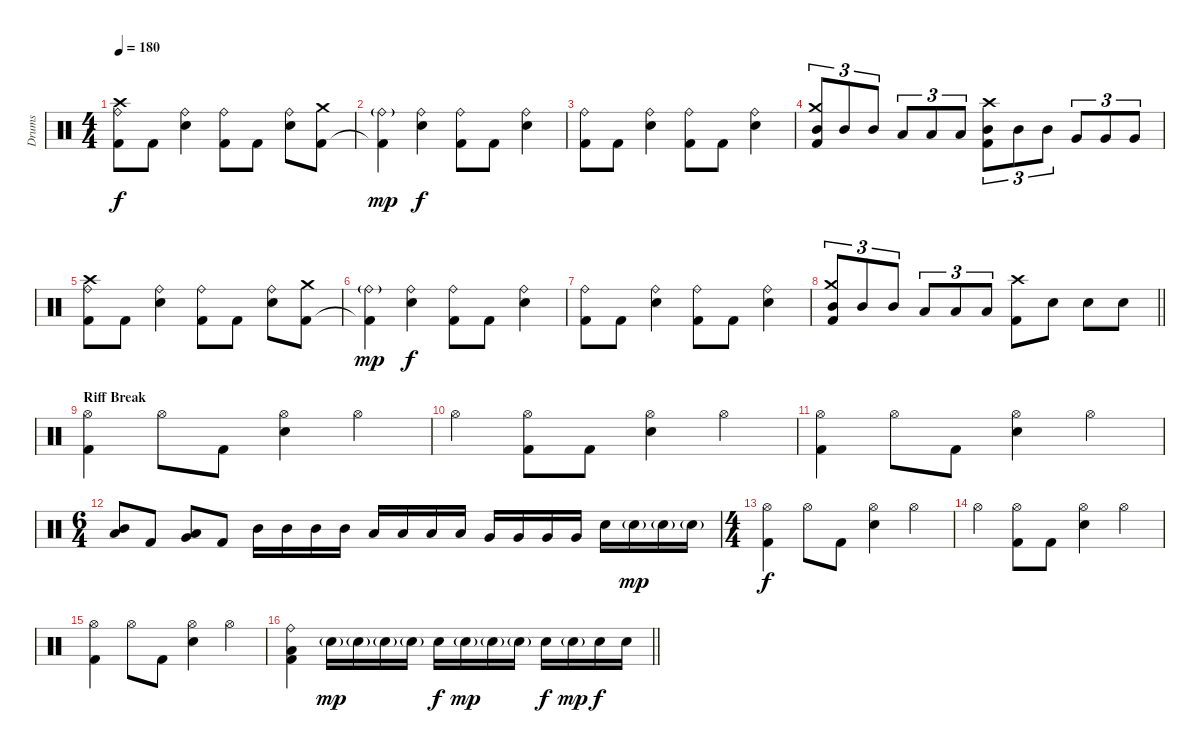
\track ("Drums" "Drums") {instrument percussion}
\staff {score}
\articulation defaults
\ts (4 4)
\tempo 180
\clef neutral
\ks c
("Ride (bell)" "Crash high (hit)" "Kick (hit) 2").8{dy f} "Kick (hit) 2".8 ("Ride (bell)" "Snare (hit) 2").4 ("Ride (bell)" "Kick (hit) 2").8 "Kick (hit) 2".8 ("Ride (bell)" "Snare (hit) 2").8 ("Crash medium (hit)" "Kick (hit) 2").8 |
("Ride (bell)"{g} "Kick (hit) 2"{t}).4{dy mp} ("Ride (bell)" "Snare (hit) 2").4{dy f} ("Ride (bell)" "Kick (hit) 2").8 "Kick (hit) 2".8 ("Ride (bell)" "Snare (hit) 2").4 |
("Ride (bell)" "Kick (hit) 2").8 "Kick (hit) 2".8 ("Ride (bell)" "Snare (hit) 2").4 ("Ride (bell)" "Kick (hit) 2").8 "Kick (hit) 2".8 ("Ride (bell)" "Snare (hit) 2").4 |
("Crash medium (hit)" "Mid Tom (hit)" "Kick (hit) 2").8{tu (3 2)} "Mid Tom (hit)".8{tu (3 2)} "Mid Tom (hit)".8{tu (3 2)} "Low Tom (hit)".8{tu (3 2)} "Low Tom (hit)".8{tu (3 2)} "Low Tom (hit)".8{tu (3 2)} ("Crash high (hit)" "Mid Tom (hit)" "Kick (hit) 2").8{tu (3 2)} "Mid Tom (hit)".8{tu (3 2)} "Mid Tom (hit)".8{tu (3 2)} "Very Low Tom (hit)".8{tu (3 2)} "Very Low Tom (hit)".8{tu (3 2)} "Very Low Tom (hit)".8{tu (3 2)} |
("Ride (bell)" "Crash high (hit)" "Kick (hit) 2").8 "Kick (hit) 2".8 ("Ride (bell)" "Snare (hit) 2").4 ("Ride (bell)" "Kick (hit) 2").8 "Kick (hit) 2".8 ("Ride (bell)" "Snare (hit) 2").8 ("Crash medium (hit)" "Kick (hit) 2").8 |
("Ride (bell)"{g} "Kick (hit) 2"{t}).4{dy mp} ("Ride (bell)" "Snare (hit) 2").4{dy f} ("Ride (bell)" "Kick (hit) 2").8 "Kick (hit) 2".8 ("Ride (bell)" "Snare (hit) 2").4 |
("Ride (bell)" "Kick (hit) 2").8 "Kick (hit) 2".8 ("Ride (bell)" "Snare (hit) 2").4 ("Ride (bell)" "Kick (hit) 2").8 "Kick (hit) 2".8 ("Ride (bell)" "Snare (hit) 2").4 |
\barLineRight lightlight
("Crash medium (hit)" "Mid Tom (hit)" "Kick (hit) 2").8{tu (3 2)} "Mid Tom (hit)".8{tu (3 2)} "Mid Tom (hit)".8{tu (3 2)} "Low Tom (hit)".8{tu (3 2)} "Low Tom (hit)".8{tu (3 2)} "Low Tom (hit)".8{tu (3 2)} ("Crash high (hit)" "Kick (hit) 2").8 "Snare (hit) 2".8 "Snare (hit) 2".8 "Snare (hit) 2".8 |
\section ("" "Riff Break")
("Hi-Hat (open)" "Kick (hit) 2").4 "Hi-Hat (open)".8 "Kick (hit) 2".8 ("Hi-Hat (open)" "Snare (hit) 2").4 "Hi-Hat (open)".4 |
"Hi-Hat (open)".4 ("Hi-Hat (open)" "Kick (hit) 2").8 "Kick (hit) 2".8 ("Hi-Hat (open)" "Snare (hit) 2").4 "Hi-Hat (open)".4 |
("Hi-Hat (open)" "Kick (hit) 2").4 "Hi-Hat (open)".8 "Kick (hit) 2".8 ("Hi-Hat (open)" "Snare (hit) 2").4 "Hi-Hat (open)".4 |
\ts (6 4)
("Mid Tom (hit)" "Low Tom (hit)").8 "Kick (hit) 2".8 ("Low Tom (hit)" "Very Low Tom (hit)").8 "Kick (hit) 2".8 "Mid Tom (hit)".16 "Mid Tom (hit)".16 "Mid Tom (hit)".16 "Mid Tom (hit)".16 "Low Tom (hit)".16 "Low Tom (hit)".16 "Low Tom (hit)".16 "Low Tom (hit)".16 "Very Low Tom (hit)".16 "Very Low Tom (hit)".16 "Very Low Tom (hit)".16 "Very Low Tom (hit)".16 "Snare (hit) 2".16 "Snare (hit) 2"{g}.16{dy mp} "Snare (hit) 2"{g}.16 "Snare (hit) 2"{g}.16 |
\ts (4 4)
("Hi-Hat (open)" "Kick (hit) 2").4{dy f} "Hi-Hat (open)".8 "Kick (hit) 2".8 ("Hi-Hat (open)" "Snare (hit) 2").4 "Hi-Hat (open)".4 |
"Hi-Hat (open)".4 ("Hi-Hat (open)" "Kick (hit) 2").8 "Kick (hit) 2".8 ("Hi-Hat (open)" "Snare (hit) 2").4 "Hi-Hat (open)".4 |
("Hi-Hat (open)" "Kick (hit) 2").4 "Hi-Hat (open)".8 "Kick (hit) 2".8 ("Hi-Hat (open)" "Snare (hit) 2").4 "Hi-Hat (open)".4 |
\barLineRight lightlight
("Ride (bell)" "Low Tom (hit)" "Kick (hit) 2").4 "Snare (hit) 2"{g}.16{dy mp} "Snare (hit) 2"{g}.16 "Snare (hit) 2"{g}.16 "Snare (hit) 2"{g}.16 "Snare (hit) 2".16{dy f} "Snare (hit) 2"{g}.16{dy mp} "Snare (hit) 2"{g}.16 "Snare (hit) 2"{g}.16 "Snare (hit) 2".16{dy f} "Snare (hit) 2"{g}.16{dy mp} "Snare (hit) 2".16{dy f} "Snare (hit) 2".16
